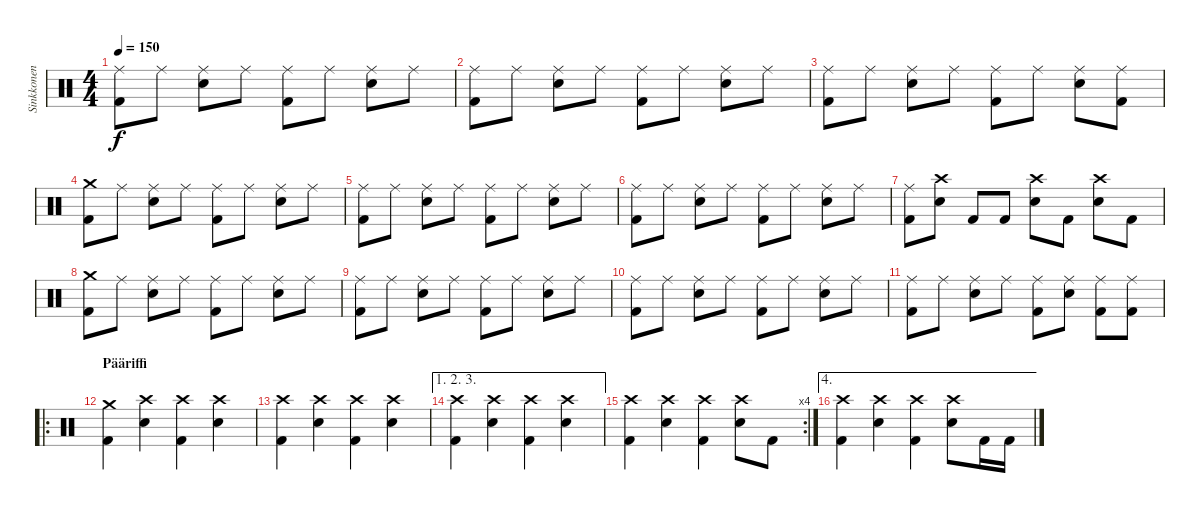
\track ("Sinkkonen" "Sinkkonen") {instrument percussion}
\staff {score}
\articulation defaults
\ts (4 4)
\tempo 150
\clef neutral
\ks c
("Kick (hit) 2" "Ride (middle)").8{dy f} "Ride (middle)".8 ("Ride (middle)" "Snare (hit) 2").8 "Ride (middle)".8 ("Kick (hit) 2" "Ride (middle)").8 "Ride (middle)".8 ("Ride (middle)" "Snare (hit) 2").8 "Ride (middle)".8 |
("Kick (hit) 2" "Ride (middle)").8 "Ride (middle)".8 ("Ride (middle)" "Snare (hit) 2").8 "Ride (middle)".8 ("Kick (hit) 2" "Ride (middle)").8 "Ride (middle)".8 ("Ride (middle)" "Snare (hit) 2").8 "Ride (middle)".8 |
("Kick (hit) 2" "Ride (middle)").8 "Ride (middle)".8 ("Ride (middle)" "Snare (hit) 2").8 "Ride (middle)".8 ("Kick (hit) 2" "Ride (middle)").8 "Ride (middle)".8 ("Ride (middle)" "Snare (hit) 2").8 ("Kick (hit) 2" "Ride (middle)").8 |
("Kick (hit) 2" "Crash medium (hit)").8 "Ride (middle)".8 ("Ride (middle)" "Snare (hit) 2").8 "Ride (middle)".8 ("Kick (hit) 2" "Ride (middle)").8 "Ride (middle)".8 ("Ride (middle)" "Snare (hit) 2").8 "Ride (middle)".8 |
("Kick (hit) 2" "Ride (middle)").8 "Ride (middle)".8 ("Ride (middle)" "Snare (hit) 2").8 "Ride (middle)".8 ("Kick (hit) 2" "Ride (middle)").8 "Ride (middle)".8 ("Ride (middle)" "Snare (hit) 2").8 "Ride (middle)".8 |
("Kick (hit) 2" "Ride (middle)").8 "Ride (middle)".8 ("Ride (middle)" "Snare (hit) 2").8 "Ride (middle)".8 ("Kick (hit) 2" "Ride (middle)").8 "Ride (middle)".8 ("Ride (middle)" "Snare (hit) 2").8 "Ride (middle)".8 |
("Kick (hit) 2" "Ride (middle)").8 ("Crash high (hit)" "Snare (hit) 2").8 "Kick (hit) 2".8 "Kick (hit) 2".8 ("Crash high (hit)" "Snare (hit) 2").8 "Kick (hit) 2".8 ("Crash high (hit)" "Snare (hit) 2").8 "Kick (hit) 2".8 |
("Kick (hit) 2" "Crash medium (hit)").8 "Ride (middle)".8 ("Ride (middle)" "Snare (hit) 2").8 "Ride (middle)".8 ("Kick (hit) 2" "Ride (middle)").8 "Ride (middle)".8 ("Ride (middle)" "Snare (hit) 2").8 "Ride (middle)".8 |
("Kick (hit) 2" "Ride (middle)").8 "Ride (middle)".8 ("Ride (middle)" "Snare (hit) 2").8 "Ride (middle)".8 ("Kick (hit) 2" "Ride (middle)").8 "Ride (middle)".8 ("Ride (middle)" "Snare (hit) 2").8 "Ride (middle)".8 |
("Kick (hit) 2" "Ride (middle)").8 "Ride (middle)".8 ("Ride (middle)" "Snare (hit) 2").8 "Ride (middle)".8 ("Kick (hit) 2" "Ride (middle)").8 "Ride (middle)".8 ("Ride (middle)" "Snare (hit) 2").8 "Ride (middle)".8 |
("Kick (hit) 2" "Ride (middle)").8 "Ride (middle)".8 ("Ride (middle)" "Snare (hit) 2").8 "Ride (middle)".8 ("Kick (hit) 2" "Ride (middle)").8 ("Ride (middle)" "Snare (hit) 2").8 ("Kick (hit) 2" "Ride (middle)").8 ("Kick (hit) 2" "Ride (middle)").8 |
\ro
\section ("" "Pääriffi")
("Kick (hit) 2" "Crash medium (hit)").4 ("Crash high (hit)" "Snare (hit) 2").4 ("Kick (hit) 2" "Crash high (hit)").4 ("Crash high (hit)" "Snare (hit) 2").4 |
("Kick (hit) 2" "Crash high (hit)").4 ("Crash high (hit)" "Snare (hit) 2").4 ("Kick (hit) 2" "Crash high (hit)").4 ("Crash high (hit)" "Snare (hit) 2").4 |
\ae (1 2 3)
("Kick (hit) 2" "Crash high (hit)").4 ("Crash high (hit)" "Snare (hit) 2").4 ("Kick (hit) 2" "Crash high (hit)").4 ("Crash high (hit)" "Snare (hit) 2").4 |
\rc 4
("Kick (hit) 2" "Crash high (hit)").4 ("Crash high (hit)" "Snare (hit) 2").4 ("Kick (hit) 2" "Crash high (hit)").4 ("Crash high (hit)" "Snare (hit) 2").8 "Kick (hit) 2".8 |
\ae 4
("Kick (hit) 2" "Crash high (hit)").4 ("Crash high (hit)" "Snare (hit) 2").4 ("Kick (hit) 2" "Crash high (hit)").4 ("Crash high (hit)" "Snare (hit) 2").8 "Kick (hit) 2".16 "Kick (hit) 2".16
